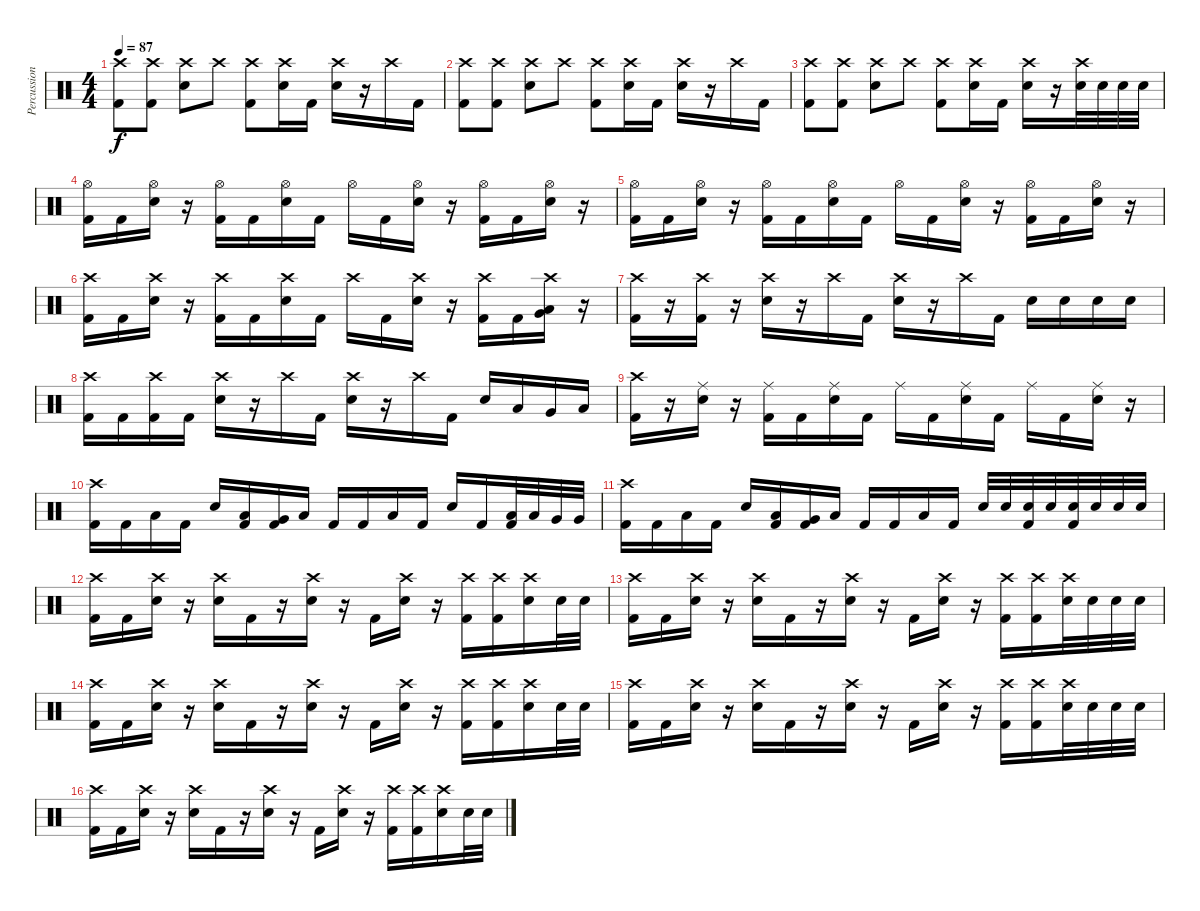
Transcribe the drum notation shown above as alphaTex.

\track ("Percussion" "Percussion") {instrument percussion}
\staff {score}
\articulation defaults
\ts (4 4)
\tempo 87
\clef neutral
\ks c
("Kick (hit) 2" "Crash high (hit)").8{dy f} ("Kick (hit) 2" "Crash high (hit)").8 ("Electric Snare (hit)" "Crash high (hit)").8 "Crash high (hit)".8 ("Kick (hit) 2" "Crash high (hit)").8 ("Electric Snare (hit)" "Crash high (hit)").16 "Kick (hit) 2".16 ("Electric Snare (hit)" "Crash high (hit)").16 r.16 "Crash high (hit)".16 "Kick (hit) 2".16 |
("Kick (hit) 2" "Crash high (hit)").8 ("Kick (hit) 2" "Crash high (hit)").8 ("Electric Snare (hit)" "Crash high (hit)").8 "Crash high (hit)".8 ("Kick (hit) 2" "Crash high (hit)").8 ("Electric Snare (hit)" "Crash high (hit)").16 "Kick (hit) 2".16 ("Electric Snare (hit)" "Crash high (hit)").16 r.16 "Crash high (hit)".16 "Kick (hit) 2".16 |
("Kick (hit) 2" "Crash high (hit)").8 ("Kick (hit) 2" "Crash high (hit)").8 ("Electric Snare (hit)" "Crash high (hit)").8 "Crash high (hit)".8 ("Kick (hit) 2" "Crash high (hit)").8 ("Electric Snare (hit)" "Crash high (hit)").16 "Kick (hit) 2".16 ("Electric Snare (hit)" "Crash high (hit)").16 r.16 ("Electric Snare (hit)" "Crash high (hit)").32 "Electric Snare (hit)".32 "Electric Snare (hit)".32 "Electric Snare (hit)".32 |
("Kick (hit) 2" "Hi-Hat (open)").16 "Kick (hit) 2".16 ("Electric Snare (hit)" "Hi-Hat (open)").16 r.16 ("Kick (hit) 2" "Hi-Hat (open)").16 "Kick (hit) 2".16 ("Electric Snare (hit)" "Hi-Hat (open)").16 "Kick (hit) 2".16 "Hi-Hat (open)".16 "Kick (hit) 2".16 ("Electric Snare (hit)" "Hi-Hat (open)").16 r.16 ("Kick (hit) 2" "Hi-Hat (open)").16 "Kick (hit) 2".16 ("Electric Snare (hit)" "Hi-Hat (open)").16 r.16 |
("Kick (hit) 2" "Hi-Hat (open)").16 "Kick (hit) 2".16 ("Electric Snare (hit)" "Hi-Hat (open)").16 r.16 ("Kick (hit) 2" "Hi-Hat (open)").16 "Kick (hit) 2".16 ("Electric Snare (hit)" "Hi-Hat (open)").16 "Kick (hit) 2".16 "Hi-Hat (open)".16 "Kick (hit) 2".16 ("Electric Snare (hit)" "Hi-Hat (open)").16 r.16 ("Kick (hit) 2" "Hi-Hat (open)").16 "Kick (hit) 2".16 ("Electric Snare (hit)" "Hi-Hat (open)").16 r.16 |
("Kick (hit) 2" "Crash high (hit)").16 "Kick (hit) 2".16 ("Electric Snare (hit)" "Crash high (hit)").16 r.16 ("Kick (hit) 2" "Crash high (hit)").16 "Kick (hit) 2".16 ("Electric Snare (hit)" "Crash high (hit)").16 "Kick (hit) 2".16 "Crash high (hit)".16 "Kick (hit) 2".16 ("Electric Snare (hit)" "Crash high (hit)").16 r.16 ("Kick (hit) 2" "Crash high (hit)").16 "Kick (hit) 2".16 ("Very Low Tom (hit)" "Low Floor Tom (hit)" "Crash high (hit)").16 r.16 |
("Kick (hit) 2" "Crash high (hit)").16 r.16 ("Kick (hit) 2" "Crash high (hit)").16 r.16 ("Electric Snare (hit)" "Crash high (hit)").16 r.16 "Crash high (hit)".16 "Kick (hit) 2".16 ("Electric Snare (hit)" "Crash high (hit)").16 r.16 "Crash high (hit)".16 "Kick (hit) 2".16 "Electric Snare (hit)".16 "Electric Snare (hit)".16 "Electric Snare (hit)".16 "Electric Snare (hit)".16 |
("Kick (hit) 2" "Crash high (hit)").16 "Kick (hit) 2".16 ("Kick (hit) 2" "Crash high (hit)").16 "Kick (hit) 2".16 ("Electric Snare (hit)" "Crash high (hit)").16 r.16 "Crash high (hit)".16 "Kick (hit) 2".16 ("Electric Snare (hit)" "Crash high (hit)").16 r.16 "Crash high (hit)".16 "Kick (hit) 2".16 "Electric Snare (hit)".16 "Low Tom (hit)".16 "Very Low Tom (hit)".16 "Low Floor Tom (hit)".16 |
("Kick (hit) 2" "Crash high (hit)").16 r.16 ("Electric Snare (hit)" "Ride (middle)").16 r.16 ("Kick (hit) 2" "Ride (middle)").16 "Kick (hit) 2".16 ("Electric Snare (hit)" "Ride (middle)").16 "Kick (hit) 2".16 "Ride (middle)".16 "Kick (hit) 2".16 ("Electric Snare (hit)" "Ride (middle)").16 "Kick (hit) 2".16 "Ride (middle)".16 "Kick (hit) 2".16 ("Electric Snare (hit)" "Ride (middle)").16 r.16 |
("Kick (hit) 2" "Crash high (hit)").16 "Kick (hit) 2".16 "Low Floor Tom (hit)".16 "Kick (hit) 2".16 "Electric Snare (hit)".16 ("Kick (hit) 2" "Low Floor Tom (hit)").16 ("Kick (hit) 2" "Very Low Tom (hit)").16 "Low Tom (hit)".16 "Kick (hit) 2".16 "Kick (hit) 2".16 "Low Floor Tom (hit)".16 "Kick (hit) 2".16 "Electric Snare (hit)".16 "Kick (hit) 2".16 ("Kick (hit) 2" "Low Tom (hit)").32 "Low Tom (hit)".32 "Very Low Tom (hit)".32 "Very Low Tom (hit)".32 |
("Kick (hit) 2" "Crash high (hit)").16 "Kick (hit) 2".16 "Low Floor Tom (hit)".16 "Kick (hit) 2".16 "Electric Snare (hit)".16 ("Kick (hit) 2" "Low Floor Tom (hit)").16 ("Kick (hit) 2" "Very Low Tom (hit)").16 "Low Tom (hit)".16 "Kick (hit) 2".16 "Kick (hit) 2".16 "Low Floor Tom (hit)".16 "Kick (hit) 2".16 "Electric Snare (hit)".32 "Electric Snare (hit)".32 ("Kick (hit) 2" "Electric Snare (hit)").32 "Electric Snare (hit)".32 ("Kick (hit) 2" "Electric Snare (hit)").32 "Electric Snare (hit)".32 "Electric Snare (hit)".32 "Electric Snare (hit)".32 |
("Kick (hit) 2" "Crash high (hit)").16 "Kick (hit) 2".16 ("Electric Snare (hit)" "Crash high (hit)").16 r.16 ("Electric Snare (hit)" "Crash high (hit)").16 "Kick (hit) 2".16 r.16 ("Electric Snare (hit)" "Crash high (hit)").16 r.16 "Kick (hit) 2".16 ("Electric Snare (hit)" "Crash high (hit)").16 r.16 ("Kick (hit) 2" "Crash high (hit)").16 ("Kick (hit) 2" "Crash high (hit)").16 ("Electric Snare (hit)" "Crash high (hit)").16 "Electric Snare (hit)".32 "Electric Snare (hit)".32 |
("Kick (hit) 2" "Crash high (hit)").16 "Kick (hit) 2".16 ("Electric Snare (hit)" "Crash high (hit)").16 r.16 ("Electric Snare (hit)" "Crash high (hit)").16 "Kick (hit) 2".16 r.16 ("Electric Snare (hit)" "Crash high (hit)").16 r.16 "Kick (hit) 2".16 ("Electric Snare (hit)" "Crash high (hit)").16 r.16 ("Kick (hit) 2" "Crash high (hit)").16 ("Kick (hit) 2" "Crash high (hit)").16 ("Electric Snare (hit)" "Crash high (hit)").32 "Electric Snare (hit)".32 "Electric Snare (hit)".32 "Electric Snare (hit)".32 |
("Kick (hit) 2" "Crash high (hit)").16 "Kick (hit) 2".16 ("Electric Snare (hit)" "Crash high (hit)").16 r.16 ("Electric Snare (hit)" "Crash high (hit)").16 "Kick (hit) 2".16 r.16 ("Electric Snare (hit)" "Crash high (hit)").16 r.16 "Kick (hit) 2".16 ("Electric Snare (hit)" "Crash high (hit)").16 r.16 ("Kick (hit) 2" "Crash high (hit)").16 ("Kick (hit) 2" "Crash high (hit)").16 ("Electric Snare (hit)" "Crash high (hit)").16 "Electric Snare (hit)".32 "Electric Snare (hit)".32 |
("Kick (hit) 2" "Crash high (hit)").16 "Kick (hit) 2".16 ("Electric Snare (hit)" "Crash high (hit)").16 r.16 ("Electric Snare (hit)" "Crash high (hit)").16 "Kick (hit) 2".16 r.16 ("Electric Snare (hit)" "Crash high (hit)").16 r.16 "Kick (hit) 2".16 ("Electric Snare (hit)" "Crash high (hit)").16 r.16 ("Kick (hit) 2" "Crash high (hit)").16 ("Kick (hit) 2" "Crash high (hit)").16 ("Electric Snare (hit)" "Crash high (hit)").32 "Electric Snare (hit)".32 "Electric Snare (hit)".32 "Electric Snare (hit)".32 |
("Kick (hit) 2" "Crash high (hit)").16 "Kick (hit) 2".16 ("Electric Snare (hit)" "Crash high (hit)").16 r.16 ("Electric Snare (hit)" "Crash high (hit)").16 "Kick (hit) 2".16 r.16 ("Electric Snare (hit)" "Crash high (hit)").16 r.16 "Kick (hit) 2".16 ("Electric Snare (hit)" "Crash high (hit)").16 r.16 ("Kick (hit) 2" "Crash high (hit)").16 ("Kick (hit) 2" "Crash high (hit)").16 ("Electric Snare (hit)" "Crash high (hit)").16 "Electric Snare (hit)".32 "Electric Snare (hit)".32
